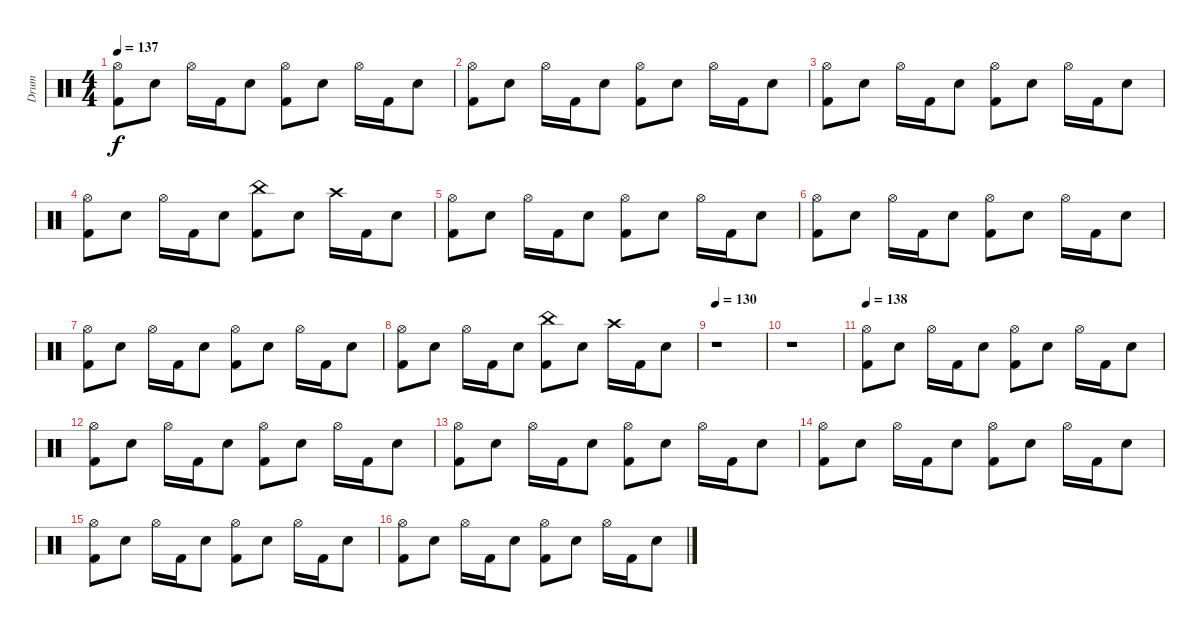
\track ("Drum" "Drum") {instrument percussion}
\staff {score}
\articulation defaults
\ts (4 4)
\tempo 137
\clef neutral
\ks c
("Hi-Hat (open)" "Kick (hit) 2").8{dy f} "Snare (hit) 2".8 "Hi-Hat (open)".16 "Kick (hit) 2".16 "Snare (hit) 2".8 ("Hi-Hat (open)" "Kick (hit) 2").8 "Snare (hit) 2".8 "Hi-Hat (open)".16 "Kick (hit) 2".16 "Snare (hit) 2".8 |
("Hi-Hat (open)" "Kick (hit) 2").8 "Snare (hit) 2".8 "Hi-Hat (open)".16 "Kick (hit) 2".16 "Snare (hit) 2".8 ("Hi-Hat (open)" "Kick (hit) 2").8 "Snare (hit) 2".8 "Hi-Hat (open)".16 "Kick (hit) 2".16 "Snare (hit) 2".8 |
("Hi-Hat (open)" "Kick (hit) 2").8 "Snare (hit) 2".8 "Hi-Hat (open)".16 "Kick (hit) 2".16 "Snare (hit) 2".8 ("Hi-Hat (open)" "Kick (hit) 2").8 "Snare (hit) 2".8 "Hi-Hat (open)".16 "Kick (hit) 2".16 "Snare (hit) 2".8 |
("Hi-Hat (open)" "Kick (hit) 2").8 "Snare (hit) 2".8 "Hi-Hat (open)".16 "Kick (hit) 2".16 "Snare (hit) 2".8 ("China (hit)" "Kick (hit) 2").8 "Snare (hit) 2".8 "Crash high (hit)".16 "Kick (hit) 2".16 "Snare (hit) 2".8 |
("Hi-Hat (open)" "Kick (hit) 2").8 "Snare (hit) 2".8 "Hi-Hat (open)".16 "Kick (hit) 2".16 "Snare (hit) 2".8 ("Hi-Hat (open)" "Kick (hit) 2").8 "Snare (hit) 2".8 "Hi-Hat (open)".16 "Kick (hit) 2".16 "Snare (hit) 2".8 |
("Hi-Hat (open)" "Kick (hit) 2").8 "Snare (hit) 2".8 "Hi-Hat (open)".16 "Kick (hit) 2".16 "Snare (hit) 2".8 ("Hi-Hat (open)" "Kick (hit) 2").8 "Snare (hit) 2".8 "Hi-Hat (open)".16 "Kick (hit) 2".16 "Snare (hit) 2".8 |
("Hi-Hat (open)" "Kick (hit) 2").8 "Snare (hit) 2".8 "Hi-Hat (open)".16 "Kick (hit) 2".16 "Snare (hit) 2".8 ("Hi-Hat (open)" "Kick (hit) 2").8 "Snare (hit) 2".8 "Hi-Hat (open)".16 "Kick (hit) 2".16 "Snare (hit) 2".8 |
("Hi-Hat (open)" "Kick (hit) 2").8 "Snare (hit) 2".8 "Hi-Hat (open)".16 "Kick (hit) 2".16 "Snare (hit) 2".8 ("China (hit)" "Kick (hit) 2").8 "Snare (hit) 2".8 "Crash high (hit)".16 "Kick (hit) 2".16 "Snare (hit) 2".8 |
\tempo 130
r.1 |
r.1 |
\tempo 138
("Hi-Hat (open)" "Kick (hit) 2").8 "Snare (hit) 2".8 "Hi-Hat (open)".16 "Kick (hit) 2".16 "Snare (hit) 2".8 ("Hi-Hat (open)" "Kick (hit) 2").8 "Snare (hit) 2".8 "Hi-Hat (open)".16 "Kick (hit) 2".16 "Snare (hit) 2".8 |
("Hi-Hat (open)" "Kick (hit) 2").8 "Snare (hit) 2".8 "Hi-Hat (open)".16 "Kick (hit) 2".16 "Snare (hit) 2".8 ("Hi-Hat (open)" "Kick (hit) 2").8 "Snare (hit) 2".8 "Hi-Hat (open)".16 "Kick (hit) 2".16 "Snare (hit) 2".8 |
("Hi-Hat (open)" "Kick (hit) 2").8 "Snare (hit) 2".8 "Hi-Hat (open)".16 "Kick (hit) 2".16 "Snare (hit) 2".8 ("Hi-Hat (open)" "Kick (hit) 2").8 "Snare (hit) 2".8 "Hi-Hat (open)".16 "Kick (hit) 2".16 "Snare (hit) 2".8 |
("Hi-Hat (open)" "Kick (hit) 2").8 "Snare (hit) 2".8 "Hi-Hat (open)".16 "Kick (hit) 2".16 "Snare (hit) 2".8 ("Hi-Hat (open)" "Kick (hit) 2").8 "Snare (hit) 2".8 "Hi-Hat (open)".16 "Kick (hit) 2".16 "Snare (hit) 2".8 |
("Hi-Hat (open)" "Kick (hit) 2").8 "Snare (hit) 2".8 "Hi-Hat (open)".16 "Kick (hit) 2".16 "Snare (hit) 2".8 ("Hi-Hat (open)" "Kick (hit) 2").8 "Snare (hit) 2".8 "Hi-Hat (open)".16 "Kick (hit) 2".16 "Snare (hit) 2".8 |
("Hi-Hat (open)" "Kick (hit) 2").8 "Snare (hit) 2".8 "Hi-Hat (open)".16 "Kick (hit) 2".16 "Snare (hit) 2".8 ("Hi-Hat (open)" "Kick (hit) 2").8 "Snare (hit) 2".8 "Hi-Hat (open)".16 "Kick (hit) 2".16 "Snare (hit) 2".8
